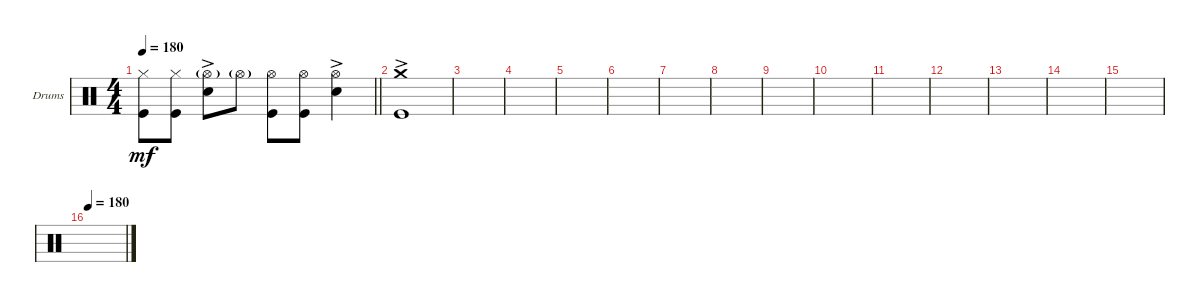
\defaultSystemsLayout 4
\bracketExtendMode groupsimilarinstruments
\firstSystemTrackNameOrientation horizontal
\otherSystemsTrackNameOrientation horizontal
\track ("Will - Drumkit" "Drums") {instrument percussion}
\staff {score}
\articulation defaults
\ts (4 4)
\tempo 180
\clef neutral
\barLineRight lightlight
\ks c
("Hi-Hat (closed)" "Kick (hit)").8{dy mf} ("Hi-Hat (closed)" "Kick (hit)").8 ("Hi-Hat (open)"{g} "Snare (hit) 2"{ac}).8 "Hi-Hat (open)"{g}.8 ("Hi-Hat (open)" "Kick (hit)").8 ("Kick (hit)" "Hi-Hat (open)").8 ("Hi-Hat (open)"{ac} "Snare (hit) 2"{ac}).4 |
("Crash medium (hit)"{ac} "Kick (hit)").1 |
|
|
|
|
|
|
|
|
|
|
|
|
|
\tempo 180
